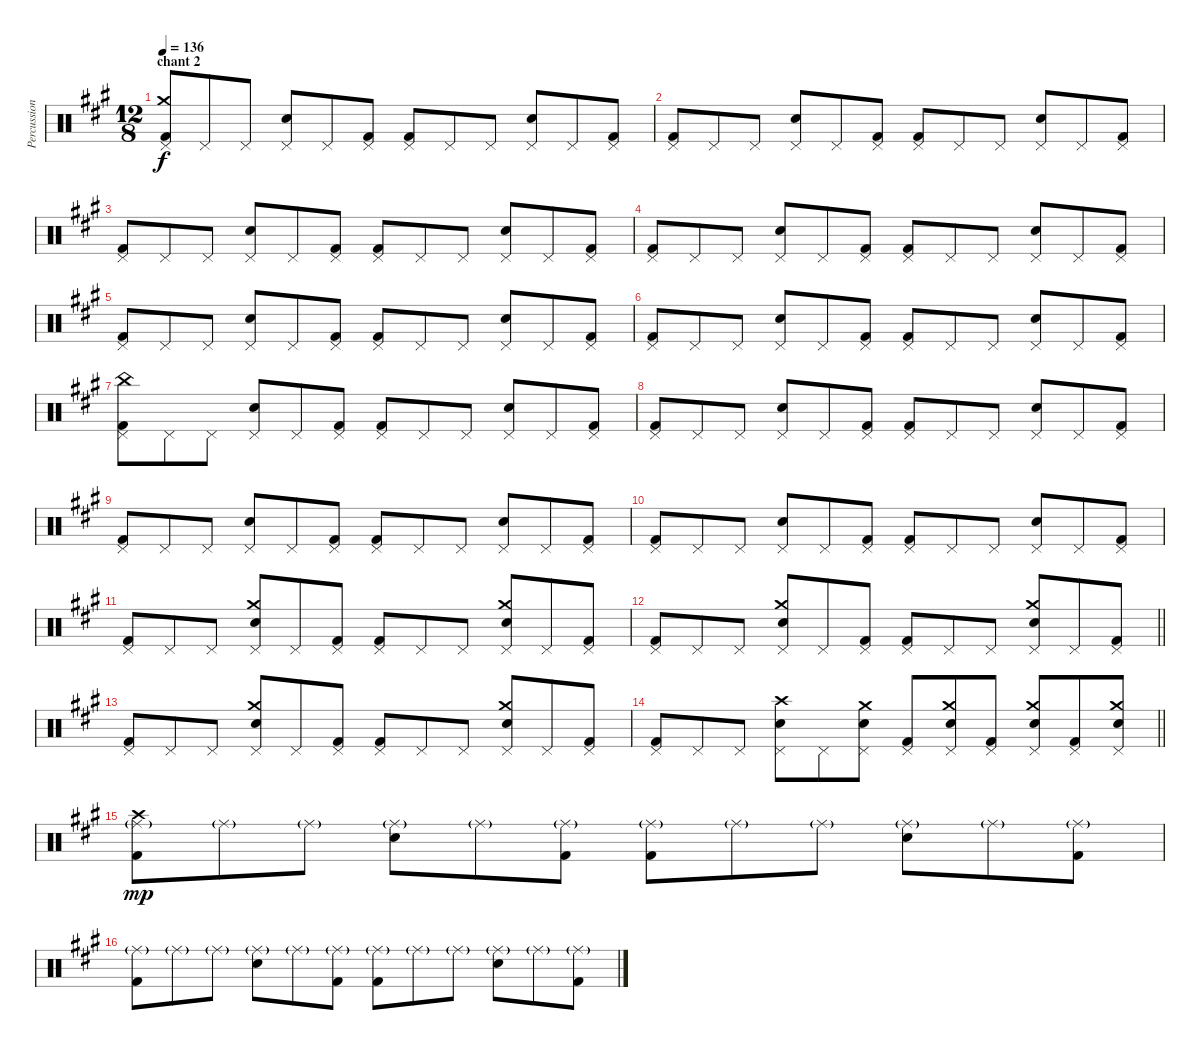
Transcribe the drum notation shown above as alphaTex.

\track ("Percussions" "Percussion") {instrument percussion}
\staff {score}
\articulation defaults
\ts (12 8)
\section ("" "chant 2")
\tempo 136
\clef neutral
\ks a
("Pedal Hi-Hat (hit)" "Crash medium (hit)" "Kick (hit) 2").8{dy f} "Pedal Hi-Hat (hit)".8 "Pedal Hi-Hat (hit)".8 ("Pedal Hi-Hat (hit)" "Snare (hit) 2").8 "Pedal Hi-Hat (hit)".8 ("Pedal Hi-Hat (hit)" "Kick (hit) 2").8 ("Pedal Hi-Hat (hit)" "Kick (hit) 2").8 "Pedal Hi-Hat (hit)".8 "Pedal Hi-Hat (hit)".8 ("Pedal Hi-Hat (hit)" "Snare (hit) 2").8 "Pedal Hi-Hat (hit)".8 ("Pedal Hi-Hat (hit)" "Kick (hit) 2").8 |
("Pedal Hi-Hat (hit)" "Kick (hit) 2").8 "Pedal Hi-Hat (hit)".8 "Pedal Hi-Hat (hit)".8 ("Pedal Hi-Hat (hit)" "Snare (hit) 2").8 "Pedal Hi-Hat (hit)".8 ("Pedal Hi-Hat (hit)" "Kick (hit) 2").8 ("Pedal Hi-Hat (hit)" "Kick (hit) 2").8 "Pedal Hi-Hat (hit)".8 "Pedal Hi-Hat (hit)".8 ("Pedal Hi-Hat (hit)" "Snare (hit) 2").8 "Pedal Hi-Hat (hit)".8 ("Pedal Hi-Hat (hit)" "Kick (hit) 2").8 |
("Pedal Hi-Hat (hit)" "Kick (hit) 2").8 "Pedal Hi-Hat (hit)".8 "Pedal Hi-Hat (hit)".8 ("Pedal Hi-Hat (hit)" "Snare (hit) 2").8 "Pedal Hi-Hat (hit)".8 ("Pedal Hi-Hat (hit)" "Kick (hit) 2").8 ("Pedal Hi-Hat (hit)" "Kick (hit) 2").8 "Pedal Hi-Hat (hit)".8 "Pedal Hi-Hat (hit)".8 ("Pedal Hi-Hat (hit)" "Snare (hit) 2").8 "Pedal Hi-Hat (hit)".8 ("Pedal Hi-Hat (hit)" "Kick (hit) 2").8 |
("Pedal Hi-Hat (hit)" "Kick (hit) 2").8 "Pedal Hi-Hat (hit)".8 "Pedal Hi-Hat (hit)".8 ("Pedal Hi-Hat (hit)" "Snare (hit) 2").8 "Pedal Hi-Hat (hit)".8 ("Pedal Hi-Hat (hit)" "Kick (hit) 2").8 ("Pedal Hi-Hat (hit)" "Kick (hit) 2").8 "Pedal Hi-Hat (hit)".8 "Pedal Hi-Hat (hit)".8 ("Pedal Hi-Hat (hit)" "Snare (hit) 2").8 "Pedal Hi-Hat (hit)".8 ("Pedal Hi-Hat (hit)" "Kick (hit) 2").8 |
("Pedal Hi-Hat (hit)" "Kick (hit) 2").8 "Pedal Hi-Hat (hit)".8 "Pedal Hi-Hat (hit)".8 ("Pedal Hi-Hat (hit)" "Snare (hit) 2").8 "Pedal Hi-Hat (hit)".8 ("Pedal Hi-Hat (hit)" "Kick (hit) 2").8 ("Pedal Hi-Hat (hit)" "Kick (hit) 2").8 "Pedal Hi-Hat (hit)".8 "Pedal Hi-Hat (hit)".8 ("Pedal Hi-Hat (hit)" "Snare (hit) 2").8 "Pedal Hi-Hat (hit)".8 ("Pedal Hi-Hat (hit)" "Kick (hit) 2").8 |
("Pedal Hi-Hat (hit)" "Kick (hit) 2").8 "Pedal Hi-Hat (hit)".8 "Pedal Hi-Hat (hit)".8 ("Pedal Hi-Hat (hit)" "Snare (hit) 2").8 "Pedal Hi-Hat (hit)".8 ("Pedal Hi-Hat (hit)" "Kick (hit) 2").8 ("Pedal Hi-Hat (hit)" "Kick (hit) 2").8 "Pedal Hi-Hat (hit)".8 "Pedal Hi-Hat (hit)".8 ("Pedal Hi-Hat (hit)" "Snare (hit) 2").8 "Pedal Hi-Hat (hit)".8 ("Pedal Hi-Hat (hit)" "Kick (hit) 2").8 |
("Pedal Hi-Hat (hit)" "China (hit)" "Kick (hit) 2").8 "Pedal Hi-Hat (hit)".8 "Pedal Hi-Hat (hit)".8 ("Pedal Hi-Hat (hit)" "Snare (hit) 2").8 "Pedal Hi-Hat (hit)".8 ("Pedal Hi-Hat (hit)" "Kick (hit) 2").8 ("Pedal Hi-Hat (hit)" "Kick (hit) 2").8 "Pedal Hi-Hat (hit)".8 "Pedal Hi-Hat (hit)".8 ("Pedal Hi-Hat (hit)" "Snare (hit) 2").8 "Pedal Hi-Hat (hit)".8 ("Pedal Hi-Hat (hit)" "Kick (hit) 2").8 |
("Pedal Hi-Hat (hit)" "Kick (hit) 2").8 "Pedal Hi-Hat (hit)".8 "Pedal Hi-Hat (hit)".8 ("Pedal Hi-Hat (hit)" "Snare (hit) 2").8 "Pedal Hi-Hat (hit)".8 ("Pedal Hi-Hat (hit)" "Kick (hit) 2").8 ("Pedal Hi-Hat (hit)" "Kick (hit) 2").8 "Pedal Hi-Hat (hit)".8 "Pedal Hi-Hat (hit)".8 ("Pedal Hi-Hat (hit)" "Snare (hit) 2").8 "Pedal Hi-Hat (hit)".8 ("Pedal Hi-Hat (hit)" "Kick (hit) 2").8 |
("Pedal Hi-Hat (hit)" "Kick (hit) 2").8 "Pedal Hi-Hat (hit)".8 "Pedal Hi-Hat (hit)".8 ("Pedal Hi-Hat (hit)" "Snare (hit) 2").8 "Pedal Hi-Hat (hit)".8 ("Pedal Hi-Hat (hit)" "Kick (hit) 2").8 ("Pedal Hi-Hat (hit)" "Kick (hit) 2").8 "Pedal Hi-Hat (hit)".8 "Pedal Hi-Hat (hit)".8 ("Pedal Hi-Hat (hit)" "Snare (hit) 2").8 "Pedal Hi-Hat (hit)".8 ("Pedal Hi-Hat (hit)" "Kick (hit) 2").8 |
("Pedal Hi-Hat (hit)" "Kick (hit) 2").8 "Pedal Hi-Hat (hit)".8 "Pedal Hi-Hat (hit)".8 ("Pedal Hi-Hat (hit)" "Snare (hit) 2").8 "Pedal Hi-Hat (hit)".8 ("Pedal Hi-Hat (hit)" "Kick (hit) 2").8 ("Pedal Hi-Hat (hit)" "Kick (hit) 2").8 "Pedal Hi-Hat (hit)".8 "Pedal Hi-Hat (hit)".8 ("Pedal Hi-Hat (hit)" "Snare (hit) 2").8 "Pedal Hi-Hat (hit)".8 ("Pedal Hi-Hat (hit)" "Kick (hit) 2").8 |
("Pedal Hi-Hat (hit)" "Kick (hit) 2").8 "Pedal Hi-Hat (hit)".8 "Pedal Hi-Hat (hit)".8 ("Pedal Hi-Hat (hit)" "Crash medium (hit)" "Snare (hit) 2").8 "Pedal Hi-Hat (hit)".8 ("Pedal Hi-Hat (hit)" "Kick (hit) 2").8 ("Pedal Hi-Hat (hit)" "Kick (hit) 2").8 "Pedal Hi-Hat (hit)".8 "Pedal Hi-Hat (hit)".8 ("Pedal Hi-Hat (hit)" "Crash medium (hit)" "Snare (hit) 2").8 "Pedal Hi-Hat (hit)".8 ("Pedal Hi-Hat (hit)" "Kick (hit) 2").8 |
\barLineRight lightlight
("Pedal Hi-Hat (hit)" "Kick (hit) 2").8 "Pedal Hi-Hat (hit)".8 "Pedal Hi-Hat (hit)".8 ("Pedal Hi-Hat (hit)" "Crash medium (hit)" "Snare (hit) 2").8 "Pedal Hi-Hat (hit)".8 ("Pedal Hi-Hat (hit)" "Kick (hit) 2").8 ("Pedal Hi-Hat (hit)" "Kick (hit) 2").8 "Pedal Hi-Hat (hit)".8 "Pedal Hi-Hat (hit)".8 ("Pedal Hi-Hat (hit)" "Crash medium (hit)" "Snare (hit) 2").8 "Pedal Hi-Hat (hit)".8 ("Pedal Hi-Hat (hit)" "Kick (hit) 2").8 |
("Pedal Hi-Hat (hit)" "Kick (hit) 2").8 "Pedal Hi-Hat (hit)".8 "Pedal Hi-Hat (hit)".8 ("Pedal Hi-Hat (hit)" "Crash medium (hit)" "Snare (hit) 2").8 "Pedal Hi-Hat (hit)".8 ("Pedal Hi-Hat (hit)" "Kick (hit) 2").8 ("Pedal Hi-Hat (hit)" "Kick (hit) 2").8 "Pedal Hi-Hat (hit)".8 "Pedal Hi-Hat (hit)".8 ("Pedal Hi-Hat (hit)" "Crash medium (hit)" "Snare (hit) 2").8 "Pedal Hi-Hat (hit)".8 ("Pedal Hi-Hat (hit)" "Kick (hit) 2").8 |
\barLineRight lightlight
("Pedal Hi-Hat (hit)" "Kick (hit) 2").8 "Pedal Hi-Hat (hit)".8 "Pedal Hi-Hat (hit)".8 ("Pedal Hi-Hat (hit)" "Crash high (hit)" "Snare (hit) 2").8 "Pedal Hi-Hat (hit)".8 ("Pedal Hi-Hat (hit)" "Crash medium (hit)" "Snare (hit) 2").8 ("Pedal Hi-Hat (hit)" "Kick (hit) 2").8 ("Pedal Hi-Hat (hit)" "Crash medium (hit)" "Snare (hit) 2").8 ("Pedal Hi-Hat (hit)" "Kick (hit) 2").8 ("Pedal Hi-Hat (hit)" "Crash medium (hit)" "Snare (hit) 2").8 ("Pedal Hi-Hat (hit)" "Kick (hit) 2").8 ("Pedal Hi-Hat (hit)" "Crash medium (hit)" "Snare (hit) 2").8 |
("Ride (middle)"{g} "Crash high (hit)" "Kick (hit) 2").8{dy mp} "Ride (middle)"{g}.8 "Ride (middle)"{g}.8 ("Ride (middle)"{g} "Snare (hit) 2").8 "Ride (middle)"{g}.8 ("Ride (middle)"{g} "Kick (hit) 2").8 ("Ride (middle)"{g} "Kick (hit) 2").8 "Ride (middle)"{g}.8 "Ride (middle)"{g}.8 ("Ride (middle)"{g} "Snare (hit) 2").8 "Ride (middle)"{g}.8 ("Ride (middle)"{g} "Kick (hit) 2").8 |
("Ride (middle)"{g} "Kick (hit) 2").8 "Ride (middle)"{g}.8 "Ride (middle)"{g}.8 ("Ride (middle)"{g} "Snare (hit) 2").8 "Ride (middle)"{g}.8 ("Ride (middle)"{g} "Kick (hit) 2").8 ("Ride (middle)"{g} "Kick (hit) 2").8 "Ride (middle)"{g}.8 "Ride (middle)"{g}.8 ("Ride (middle)"{g} "Snare (hit) 2").8 "Ride (middle)"{g}.8 ("Ride (middle)"{g} "Kick (hit) 2").8
